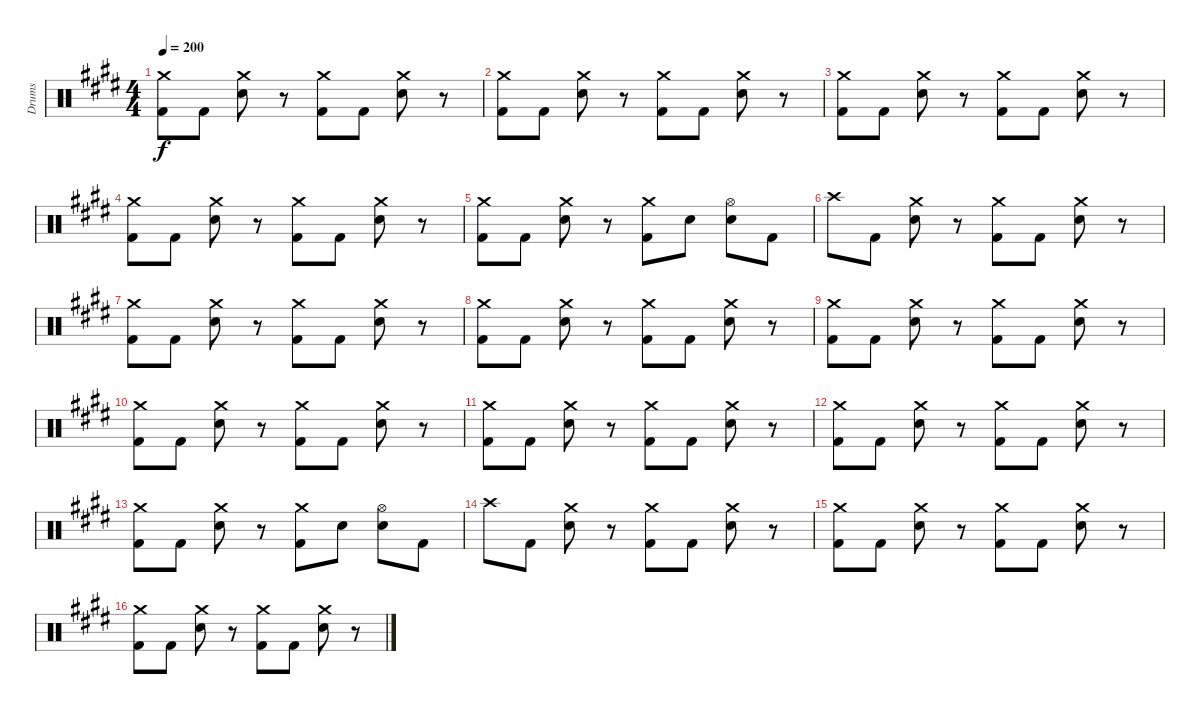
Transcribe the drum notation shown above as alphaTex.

\track ("Drums" "Drums") {instrument percussion}
\staff {score}
\articulation defaults
\ts (4 4)
\tempo 200
\clef neutral
\ks c#minor
("Crash medium (hit)" "Kick (hit) 2").8{dy f} "Kick (hit) 2".8 ("Crash medium (hit)" "Electric Snare (hit)").8 r.8 ("Crash medium (hit)" "Kick (hit) 2").8 "Kick (hit) 2".8 ("Crash medium (hit)" "Electric Snare (hit)").8 r.8 |
("Crash medium (hit)" "Kick (hit) 2").8 "Kick (hit) 2".8 ("Crash medium (hit)" "Electric Snare (hit)").8 r.8 ("Crash medium (hit)" "Kick (hit) 2").8 "Kick (hit) 2".8 ("Crash medium (hit)" "Electric Snare (hit)").8 r.8 |
("Crash medium (hit)" "Kick (hit) 2").8 "Kick (hit) 2".8 ("Crash medium (hit)" "Electric Snare (hit)").8 r.8 ("Crash medium (hit)" "Kick (hit) 2").8 "Kick (hit) 2".8 ("Crash medium (hit)" "Electric Snare (hit)").8 r.8 |
("Crash medium (hit)" "Kick (hit) 2").8 "Kick (hit) 2".8 ("Crash medium (hit)" "Electric Snare (hit)").8 r.8 ("Crash medium (hit)" "Kick (hit) 2").8 "Kick (hit) 2".8 ("Crash medium (hit)" "Electric Snare (hit)").8 r.8 |
("Crash medium (hit)" "Kick (hit) 2").8 "Kick (hit) 2".8 ("Crash medium (hit)" "Electric Snare (hit)").8 r.8 ("Crash medium (hit)" "Kick (hit) 2").8 "Electric Snare (hit)".8 ("Hi-Hat (open)" "Electric Snare (hit)").8 "Kick (hit) 2".8 |
"Crash high (hit)".8 "Kick (hit) 2".8 ("Crash medium (hit)" "Electric Snare (hit)").8 r.8 ("Crash medium (hit)" "Kick (hit) 2").8 "Kick (hit) 2".8 ("Crash medium (hit)" "Electric Snare (hit)").8 r.8 |
("Crash medium (hit)" "Kick (hit) 2").8 "Kick (hit) 2".8 ("Crash medium (hit)" "Electric Snare (hit)").8 r.8 ("Crash medium (hit)" "Kick (hit) 2").8 "Kick (hit) 2".8 ("Crash medium (hit)" "Electric Snare (hit)").8 r.8 |
("Crash medium (hit)" "Kick (hit) 2").8 "Kick (hit) 2".8 ("Crash medium (hit)" "Electric Snare (hit)").8 r.8 ("Crash medium (hit)" "Kick (hit) 2").8 "Kick (hit) 2".8 ("Crash medium (hit)" "Electric Snare (hit)").8 r.8 |
("Crash medium (hit)" "Kick (hit) 2").8 "Kick (hit) 2".8 ("Crash medium (hit)" "Electric Snare (hit)").8 r.8 ("Crash medium (hit)" "Kick (hit) 2").8 "Kick (hit) 2".8 ("Crash medium (hit)" "Electric Snare (hit)").8 r.8 |
("Crash medium (hit)" "Kick (hit) 2").8 "Kick (hit) 2".8 ("Crash medium (hit)" "Electric Snare (hit)").8 r.8 ("Crash medium (hit)" "Kick (hit) 2").8 "Kick (hit) 2".8 ("Crash medium (hit)" "Electric Snare (hit)").8 r.8 |
("Crash medium (hit)" "Kick (hit) 2").8 "Kick (hit) 2".8 ("Crash medium (hit)" "Electric Snare (hit)").8 r.8 ("Crash medium (hit)" "Kick (hit) 2").8 "Kick (hit) 2".8 ("Crash medium (hit)" "Electric Snare (hit)").8 r.8 |
("Crash medium (hit)" "Kick (hit) 2").8 "Kick (hit) 2".8 ("Crash medium (hit)" "Electric Snare (hit)").8 r.8 ("Crash medium (hit)" "Kick (hit) 2").8 "Kick (hit) 2".8 ("Crash medium (hit)" "Electric Snare (hit)").8 r.8 |
("Crash medium (hit)" "Kick (hit) 2").8 "Kick (hit) 2".8 ("Crash medium (hit)" "Electric Snare (hit)").8 r.8 ("Crash medium (hit)" "Kick (hit) 2").8 "Electric Snare (hit)".8 ("Hi-Hat (open)" "Electric Snare (hit)").8 "Kick (hit) 2".8 |
"Crash high (hit)".8 "Kick (hit) 2".8 ("Crash medium (hit)" "Electric Snare (hit)").8 r.8 ("Crash medium (hit)" "Kick (hit) 2").8 "Kick (hit) 2".8 ("Crash medium (hit)" "Electric Snare (hit)").8 r.8 |
("Crash medium (hit)" "Kick (hit) 2").8 "Kick (hit) 2".8 ("Crash medium (hit)" "Electric Snare (hit)").8 r.8 ("Crash medium (hit)" "Kick (hit) 2").8 "Kick (hit) 2".8 ("Crash medium (hit)" "Electric Snare (hit)").8 r.8 |
("Crash medium (hit)" "Kick (hit) 2").8 "Kick (hit) 2".8 ("Crash medium (hit)" "Electric Snare (hit)").8 r.8 ("Crash medium (hit)" "Kick (hit) 2").8 "Kick (hit) 2".8 ("Crash medium (hit)" "Electric Snare (hit)").8 r.8
